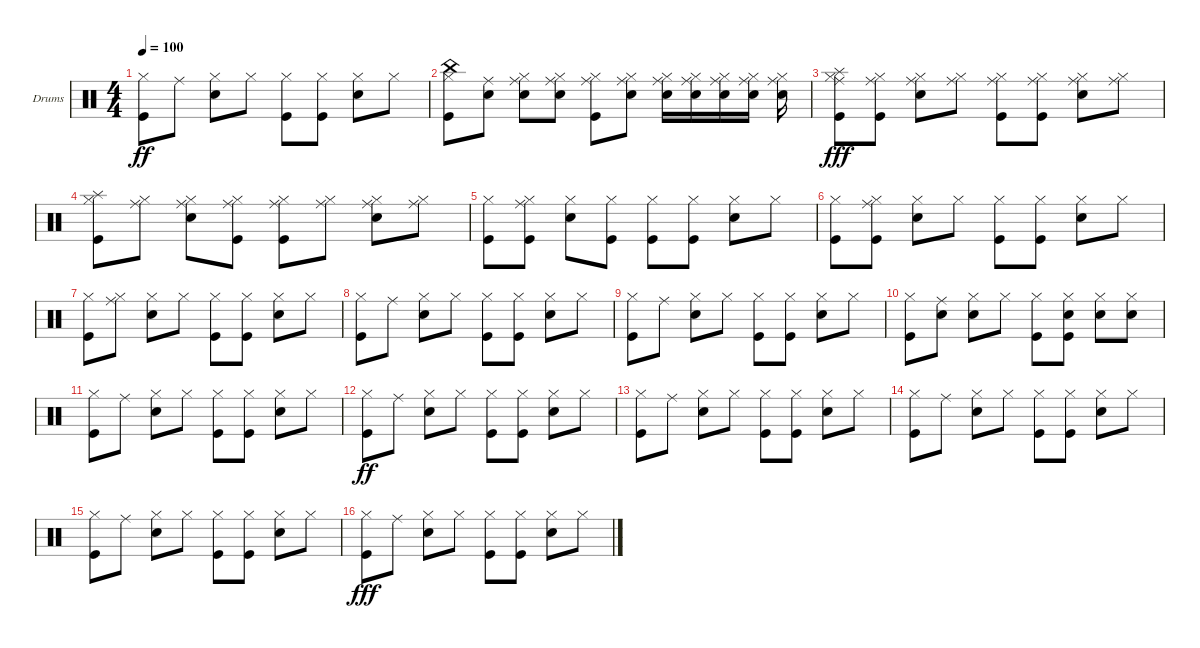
\defaultSystemsLayout 4
\bracketExtendMode groupsimilarinstruments
\firstSystemTrackNameOrientation horizontal
\otherSystemsTrackNameOrientation horizontal
\track ("Drumkit" "Drums") {instrument percussion}
\staff {score}
\articulation defaults
\ts (4 4)
\tempo 100
\clef neutral
\ks c
("Kick (hit)" "Hi-Hat (closed)").8{dy ff} "Ride (middle)".8 ("Snare (hit) 2" "Hi-Hat (closed)").8 "Hi-Hat (closed)".8 ("Kick (hit)" "Hi-Hat (closed)").8 ("Kick (hit)" "Hi-Hat (closed)").8 ("Snare (hit) 2" "Hi-Hat (closed)").8 "Hi-Hat (closed)".8 |
("Kick (hit)" "Hi-Hat (closed)" "China (hit)").8 ("Ride (middle)" "Snare (hit) 2").8 ("Snare (hit) 2" "Hi-Hat (closed)" "Ride (middle)").8 ("Hi-Hat (closed)" "Ride (middle)" "Snare (hit) 2").8 ("Kick (hit)" "Hi-Hat (closed)" "Ride (middle)").8 ("Hi-Hat (closed)" "Ride (middle)" "Snare (hit) 2").8 ("Snare (hit) 2" "Hi-Hat (closed)" "Ride (middle)").16 ("Hi-Hat (closed)" "Ride (middle)" "Snare (hit) 2").16 ("Hi-Hat (closed)" "Ride (middle)" "Snare (hit) 2").16 ("Hi-Hat (closed)" "Ride (middle)" "Snare (hit) 2").16 ("Hi-Hat (closed)" "Ride (middle)" "Snare (hit) 2").16 |
("Ride (middle)" "Kick (hit)" "Hi-Hat (closed)" "Splash (hit)").8{dy fff} ("Ride (middle)" "Hi-Hat (closed)" "Kick (hit)").8 ("Ride (middle)" "Snare (hit) 2" "Hi-Hat (closed)").8 ("Ride (middle)" "Hi-Hat (closed)").8 ("Ride (middle)" "Hi-Hat (closed)" "Kick (hit)").8 ("Ride (middle)" "Kick (hit)" "Hi-Hat (closed)").8 ("Ride (middle)" "Snare (hit) 2" "Hi-Hat (closed)").8 ("Ride (middle)" "Hi-Hat (closed)").8 |
("Splash (hit)" "Hi-Hat (closed)" "Kick (hit)").8 ("Hi-Hat (closed)" "Ride (middle)").8 ("Ride (middle)" "Snare (hit) 2" "Hi-Hat (closed)").8 ("Ride (middle)" "Kick (hit)" "Hi-Hat (closed)").8 ("Ride (middle)" "Kick (hit)" "Hi-Hat (closed)").8 ("Ride (middle)" "Hi-Hat (closed)").8 ("Ride (middle)" "Snare (hit) 2" "Hi-Hat (closed)").8 ("Ride (middle)" "Hi-Hat (closed)").8 |
("Kick (hit)" "Hi-Hat (closed)").8 ("Ride (middle)" "Hi-Hat (closed)" "Kick (hit)").8 ("Snare (hit) 2" "Hi-Hat (closed)").8 ("Kick (hit)" "Hi-Hat (closed)").8 ("Hi-Hat (closed)" "Kick (hit)").8 ("Kick (hit)" "Hi-Hat (closed)").8 ("Snare (hit) 2" "Hi-Hat (closed)").8 "Hi-Hat (closed)".8 |
("Kick (hit)" "Hi-Hat (closed)").8 ("Ride (middle)" "Hi-Hat (closed)" "Kick (hit)").8 ("Snare (hit) 2" "Hi-Hat (closed)").8 "Hi-Hat (closed)".8 ("Kick (hit)" "Hi-Hat (closed)").8 ("Kick (hit)" "Hi-Hat (closed)").8 ("Snare (hit) 2" "Hi-Hat (closed)").8 "Hi-Hat (closed)".8 |
("Kick (hit)" "Hi-Hat (closed)").8 ("Ride (middle)" "Hi-Hat (closed)").8 ("Snare (hit) 2" "Hi-Hat (closed)").8 "Hi-Hat (closed)".8 ("Kick (hit)" "Hi-Hat (closed)").8 ("Kick (hit)" "Hi-Hat (closed)").8 ("Snare (hit) 2" "Hi-Hat (closed)").8 "Hi-Hat (closed)".8 |
("Kick (hit)" "Hi-Hat (closed)").8 "Ride (middle)".8 ("Snare (hit) 2" "Hi-Hat (closed)").8 "Hi-Hat (closed)".8 ("Kick (hit)" "Hi-Hat (closed)").8 ("Kick (hit)" "Hi-Hat (closed)").8 ("Snare (hit) 2" "Hi-Hat (closed)").8 "Hi-Hat (closed)".8 |
("Kick (hit)" "Hi-Hat (closed)").8 "Ride (middle)".8 ("Snare (hit) 2" "Hi-Hat (closed)").8 "Hi-Hat (closed)".8 ("Kick (hit)" "Hi-Hat (closed)").8 ("Kick (hit)" "Hi-Hat (closed)").8 ("Snare (hit) 2" "Hi-Hat (closed)").8 "Hi-Hat (closed)".8 |
("Kick (hit)" "Hi-Hat (closed)").8 ("Ride (middle)" "Snare (hit) 2").8 ("Snare (hit) 2" "Hi-Hat (closed)").8 "Hi-Hat (closed)".8 ("Kick (hit)" "Hi-Hat (closed)").8 ("Kick (hit)" "Hi-Hat (closed)" "Snare (hit) 2").8 ("Snare (hit) 2" "Hi-Hat (closed)").8 ("Hi-Hat (closed)" "Snare (hit) 2").8 |
("Kick (hit)" "Hi-Hat (closed)").8 "Ride (middle)".8 ("Snare (hit) 2" "Hi-Hat (closed)").8 "Hi-Hat (closed)".8 ("Kick (hit)" "Hi-Hat (closed)").8 ("Kick (hit)" "Hi-Hat (closed)").8 ("Snare (hit) 2" "Hi-Hat (closed)").8 "Hi-Hat (closed)".8 |
("Kick (hit)" "Hi-Hat (closed)").8{dy ff} "Ride (middle)".8 ("Snare (hit) 2" "Hi-Hat (closed)").8 "Hi-Hat (closed)".8 ("Kick (hit)" "Hi-Hat (closed)").8 ("Kick (hit)" "Hi-Hat (closed)").8 ("Snare (hit) 2" "Hi-Hat (closed)").8 "Hi-Hat (closed)".8 |
("Kick (hit)" "Hi-Hat (closed)").8 "Ride (middle)".8 ("Snare (hit) 2" "Hi-Hat (closed)").8 "Hi-Hat (closed)".8 ("Kick (hit)" "Hi-Hat (closed)").8 ("Kick (hit)" "Hi-Hat (closed)").8 ("Snare (hit) 2" "Hi-Hat (closed)").8 "Hi-Hat (closed)".8 |
("Kick (hit)" "Hi-Hat (closed)").8 "Ride (middle)".8 ("Snare (hit) 2" "Hi-Hat (closed)").8 "Hi-Hat (closed)".8 ("Kick (hit)" "Hi-Hat (closed)").8 ("Kick (hit)" "Hi-Hat (closed)").8 ("Snare (hit) 2" "Hi-Hat (closed)").8 "Hi-Hat (closed)".8 |
("Kick (hit)" "Hi-Hat (closed)").8 "Ride (middle)".8 ("Snare (hit) 2" "Hi-Hat (closed)").8 "Hi-Hat (closed)".8 ("Kick (hit)" "Hi-Hat (closed)").8 ("Kick (hit)" "Hi-Hat (closed)").8 ("Snare (hit) 2" "Hi-Hat (closed)").8 "Hi-Hat (closed)".8 |
("Kick (hit)" "Hi-Hat (closed)").8{dy fff} "Ride (middle)".8 ("Snare (hit) 2" "Hi-Hat (closed)").8 "Hi-Hat (closed)".8 ("Kick (hit)" "Hi-Hat (closed)").8 ("Kick (hit)" "Hi-Hat (closed)").8 ("Snare (hit) 2" "Hi-Hat (closed)").8 "Hi-Hat (closed)".8
